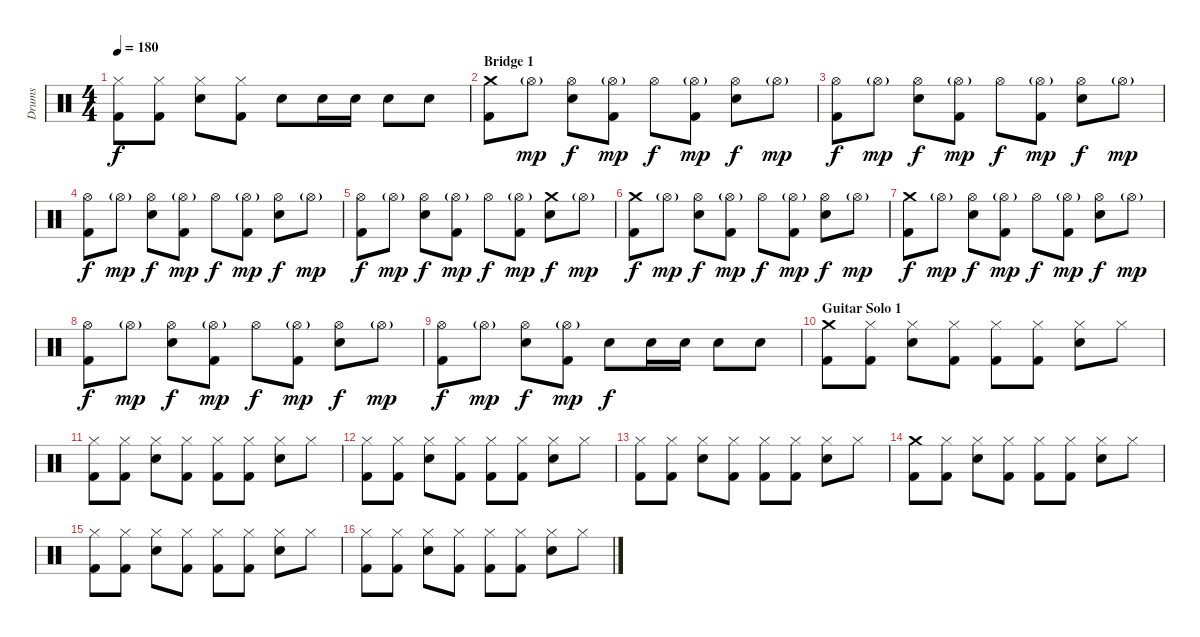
\track ("Drums" "Drums") {instrument percussion}
\staff {score}
\articulation defaults
\ts (4 4)
\tempo 180
\clef neutral
\ks c
("Hi-Hat (closed)" "Kick (hit) 2").8{dy f} ("Hi-Hat (closed)" "Kick (hit) 2").8 ("Hi-Hat (closed)" "Electric Snare (hit)").8 ("Hi-Hat (closed)" "Kick (hit) 2").8 "Electric Snare (hit)".8 "Electric Snare (hit)".16 "Electric Snare (hit)".16 "Electric Snare (hit)".8 "Electric Snare (hit)".8 |
\section ("" "Bridge 1")
("Crash medium (hit)" "Kick (hit) 2").8 "Hi-Hat (open)"{g}.8{dy mp} ("Hi-Hat (open)" "Electric Snare (hit)").8{dy f} ("Hi-Hat (open)"{g} "Kick (hit) 2").8{dy mp} "Hi-Hat (open)".8{dy f} ("Hi-Hat (open)"{g} "Kick (hit) 2").8{dy mp} ("Hi-Hat (open)" "Electric Snare (hit)").8{dy f} "Hi-Hat (open)"{g}.8{dy mp} |
("Hi-Hat (open)" "Kick (hit) 2").8{dy f} "Hi-Hat (open)"{g}.8{dy mp} ("Hi-Hat (open)" "Electric Snare (hit)").8{dy f} ("Hi-Hat (open)"{g} "Kick (hit) 2").8{dy mp} "Hi-Hat (open)".8{dy f} ("Hi-Hat (open)"{g} "Kick (hit) 2").8{dy mp} ("Hi-Hat (open)" "Electric Snare (hit)").8{dy f} "Hi-Hat (open)"{g}.8{dy mp} |
("Hi-Hat (open)" "Kick (hit) 2").8{dy f} "Hi-Hat (open)"{g}.8{dy mp} ("Hi-Hat (open)" "Electric Snare (hit)").8{dy f} ("Hi-Hat (open)"{g} "Kick (hit) 2").8{dy mp} "Hi-Hat (open)".8{dy f} ("Hi-Hat (open)"{g} "Kick (hit) 2").8{dy mp} ("Hi-Hat (open)" "Electric Snare (hit)").8{dy f} "Hi-Hat (open)"{g}.8{dy mp} |
("Hi-Hat (open)" "Kick (hit) 2").8{dy f} "Hi-Hat (open)"{g}.8{dy mp} ("Hi-Hat (open)" "Electric Snare (hit)").8{dy f} ("Hi-Hat (open)"{g} "Kick (hit) 2").8{dy mp} "Hi-Hat (open)".8{dy f} ("Hi-Hat (open)"{g} "Kick (hit) 2").8{dy mp} ("Crash medium (hit)" "Electric Snare (hit)").8{dy f} "Hi-Hat (open)"{g}.8{dy mp} |
("Crash medium (hit)" "Kick (hit) 2").8{dy f} "Hi-Hat (open)"{g}.8{dy mp} ("Hi-Hat (open)" "Electric Snare (hit)").8{dy f} ("Hi-Hat (open)"{g} "Kick (hit) 2").8{dy mp} "Hi-Hat (open)".8{dy f} ("Hi-Hat (open)"{g} "Kick (hit) 2").8{dy mp} ("Hi-Hat (open)" "Electric Snare (hit)").8{dy f} "Hi-Hat (open)"{g}.8{dy mp} |
("Crash medium (hit)" "Kick (hit) 2").8{dy f} "Hi-Hat (open)"{g}.8{dy mp} ("Hi-Hat (open)" "Electric Snare (hit)").8{dy f} ("Hi-Hat (open)"{g} "Kick (hit) 2").8{dy mp} "Hi-Hat (open)".8{dy f} ("Hi-Hat (open)"{g} "Kick (hit) 2").8{dy mp} ("Hi-Hat (open)" "Electric Snare (hit)").8{dy f} "Hi-Hat (open)"{g}.8{dy mp} |
("Hi-Hat (open)" "Kick (hit) 2").8{dy f} "Hi-Hat (open)"{g}.8{dy mp} ("Hi-Hat (open)" "Electric Snare (hit)").8{dy f} ("Hi-Hat (open)"{g} "Kick (hit) 2").8{dy mp} "Hi-Hat (open)".8{dy f} ("Hi-Hat (open)"{g} "Kick (hit) 2").8{dy mp} ("Hi-Hat (open)" "Electric Snare (hit)").8{dy f} "Hi-Hat (open)"{g}.8{dy mp} |
("Hi-Hat (open)" "Kick (hit) 2").8{dy f} "Hi-Hat (open)"{g}.8{dy mp} ("Hi-Hat (open)" "Electric Snare (hit)").8{dy f} ("Hi-Hat (open)"{g} "Kick (hit) 2").8{dy mp} "Electric Snare (hit)".8{dy f} "Electric Snare (hit)".16 "Electric Snare (hit)".16 "Electric Snare (hit)".8 "Electric Snare (hit)".8 |
\section ("" "Guitar Solo 1")
("Crash medium (hit)" "Kick (hit) 2").8 ("Hi-Hat (closed)" "Kick (hit) 2").8 ("Hi-Hat (closed)" "Electric Snare (hit)").8 ("Hi-Hat (closed)" "Kick (hit) 2").8 ("Hi-Hat (closed)" "Kick (hit) 2").8 ("Hi-Hat (closed)" "Kick (hit) 2").8 ("Hi-Hat (closed)" "Electric Snare (hit)").8 "Hi-Hat (closed)".8 |
("Hi-Hat (closed)" "Kick (hit) 2").8 ("Hi-Hat (closed)" "Kick (hit) 2").8 ("Hi-Hat (closed)" "Electric Snare (hit)").8 ("Hi-Hat (closed)" "Kick (hit) 2").8 ("Hi-Hat (closed)" "Kick (hit) 2").8 ("Hi-Hat (closed)" "Kick (hit) 2").8 ("Hi-Hat (closed)" "Electric Snare (hit)").8 "Hi-Hat (closed)".8 |
("Hi-Hat (closed)" "Kick (hit) 2").8 ("Hi-Hat (closed)" "Kick (hit) 2").8 ("Hi-Hat (closed)" "Electric Snare (hit)").8 ("Hi-Hat (closed)" "Kick (hit) 2").8 ("Hi-Hat (closed)" "Kick (hit) 2").8 ("Hi-Hat (closed)" "Kick (hit) 2").8 ("Hi-Hat (closed)" "Electric Snare (hit)").8 "Hi-Hat (closed)".8 |
("Hi-Hat (closed)" "Kick (hit) 2").8 ("Hi-Hat (closed)" "Kick (hit) 2").8 ("Hi-Hat (closed)" "Electric Snare (hit)").8 ("Hi-Hat (closed)" "Kick (hit) 2").8 ("Hi-Hat (closed)" "Kick (hit) 2").8 ("Hi-Hat (closed)" "Kick (hit) 2").8 ("Hi-Hat (closed)" "Electric Snare (hit)").8 "Hi-Hat (closed)".8 |
("Crash medium (hit)" "Kick (hit) 2").8 ("Hi-Hat (closed)" "Kick (hit) 2").8 ("Hi-Hat (closed)" "Electric Snare (hit)").8 ("Hi-Hat (closed)" "Kick (hit) 2").8 ("Hi-Hat (closed)" "Kick (hit) 2").8 ("Hi-Hat (closed)" "Kick (hit) 2").8 ("Hi-Hat (closed)" "Electric Snare (hit)").8 "Hi-Hat (closed)".8 |
("Hi-Hat (closed)" "Kick (hit) 2").8 ("Hi-Hat (closed)" "Kick (hit) 2").8 ("Hi-Hat (closed)" "Electric Snare (hit)").8 ("Hi-Hat (closed)" "Kick (hit) 2").8 ("Hi-Hat (closed)" "Kick (hit) 2").8 ("Hi-Hat (closed)" "Kick (hit) 2").8 ("Hi-Hat (closed)" "Electric Snare (hit)").8 "Hi-Hat (closed)".8 |
("Hi-Hat (closed)" "Kick (hit) 2").8 ("Hi-Hat (closed)" "Kick (hit) 2").8 ("Hi-Hat (closed)" "Electric Snare (hit)").8 ("Hi-Hat (closed)" "Kick (hit) 2").8 ("Hi-Hat (closed)" "Kick (hit) 2").8 ("Hi-Hat (closed)" "Kick (hit) 2").8 ("Hi-Hat (closed)" "Electric Snare (hit)").8 "Hi-Hat (closed)".8
